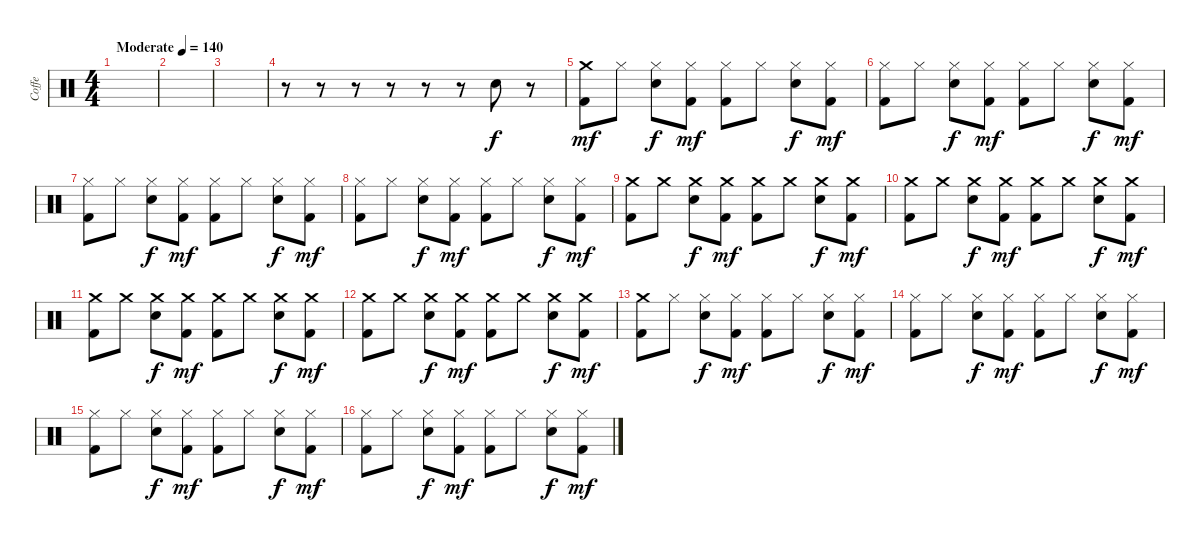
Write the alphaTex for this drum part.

\track ("Coffe" "Coffe") {instrument percussion}
\staff {score}
\articulation defaults
\ts (4 4)
\tempo (140 "Moderate")
\clef neutral
\ks c
|
|
|
r.8 r.8 r.8 r.8 r.8 r.8 "Snare (hit) 2".8 r.8 |
("Crash medium (hit)" "Kick (hit) 2").8{dy mf} "Hi-Hat (closed)".8 ("Hi-Hat (closed)" "Snare (hit) 2").8{dy f} ("Hi-Hat (closed)" "Kick (hit) 2").8{dy mf} ("Hi-Hat (closed)" "Kick (hit) 2").8 "Hi-Hat (closed)".8 ("Hi-Hat (closed)" "Snare (hit) 2").8{dy f} ("Hi-Hat (closed)" "Kick (hit) 2").8{dy mf} |
("Hi-Hat (closed)" "Kick (hit) 2").8 "Hi-Hat (closed)".8 ("Hi-Hat (closed)" "Snare (hit) 2").8{dy f} ("Hi-Hat (closed)" "Kick (hit) 2").8{dy mf} ("Hi-Hat (closed)" "Kick (hit) 2").8 "Hi-Hat (closed)".8 ("Hi-Hat (closed)" "Snare (hit) 2").8{dy f} ("Hi-Hat (closed)" "Kick (hit) 2").8{dy mf} |
("Hi-Hat (closed)" "Kick (hit) 2").8 "Hi-Hat (closed)".8 ("Hi-Hat (closed)" "Snare (hit) 2").8{dy f} ("Hi-Hat (closed)" "Kick (hit) 2").8{dy mf} ("Hi-Hat (closed)" "Kick (hit) 2").8 "Hi-Hat (closed)".8 ("Hi-Hat (closed)" "Snare (hit) 2").8{dy f} ("Hi-Hat (closed)" "Kick (hit) 2").8{dy mf} |
("Hi-Hat (closed)" "Kick (hit) 2").8 "Hi-Hat (closed)".8 ("Hi-Hat (closed)" "Snare (hit) 2").8{dy f} ("Hi-Hat (closed)" "Kick (hit) 2").8{dy mf} ("Hi-Hat (closed)" "Kick (hit) 2").8 "Hi-Hat (closed)".8 ("Hi-Hat (closed)" "Snare (hit) 2").8{dy f} ("Hi-Hat (closed)" "Kick (hit) 2").8{dy mf} |
("Crash medium (hit)" "Kick (hit) 2").8 "Crash medium (hit)".8 ("Crash medium (hit)" "Snare (hit) 2").8{dy f} ("Crash medium (hit)" "Kick (hit) 2").8{dy mf} ("Crash medium (hit)" "Kick (hit) 2").8 "Crash medium (hit)".8 ("Crash medium (hit)" "Snare (hit) 2").8{dy f} ("Crash medium (hit)" "Kick (hit) 2").8{dy mf} |
("Crash medium (hit)" "Kick (hit) 2").8 "Crash medium (hit)".8 ("Crash medium (hit)" "Snare (hit) 2").8{dy f} ("Crash medium (hit)" "Kick (hit) 2").8{dy mf} ("Crash medium (hit)" "Kick (hit) 2").8 "Crash medium (hit)".8 ("Crash medium (hit)" "Snare (hit) 2").8{dy f} ("Crash medium (hit)" "Kick (hit) 2").8{dy mf} |
("Crash medium (hit)" "Kick (hit) 2").8 "Crash medium (hit)".8 ("Crash medium (hit)" "Snare (hit) 2").8{dy f} ("Crash medium (hit)" "Kick (hit) 2").8{dy mf} ("Crash medium (hit)" "Kick (hit) 2").8 "Crash medium (hit)".8 ("Crash medium (hit)" "Snare (hit) 2").8{dy f} ("Crash medium (hit)" "Kick (hit) 2").8{dy mf} |
("Crash medium (hit)" "Kick (hit) 2").8 "Crash medium (hit)".8 ("Crash medium (hit)" "Snare (hit) 2").8{dy f} ("Crash medium (hit)" "Kick (hit) 2").8{dy mf} ("Crash medium (hit)" "Kick (hit) 2").8 "Crash medium (hit)".8 ("Crash medium (hit)" "Snare (hit) 2").8{dy f} ("Crash medium (hit)" "Kick (hit) 2").8{dy mf} |
("Crash medium (hit)" "Kick (hit) 2").8 "Hi-Hat (closed)".8 ("Hi-Hat (closed)" "Snare (hit) 2").8{dy f} ("Hi-Hat (closed)" "Kick (hit) 2").8{dy mf} ("Hi-Hat (closed)" "Kick (hit) 2").8 "Hi-Hat (closed)".8 ("Hi-Hat (closed)" "Snare (hit) 2").8{dy f} ("Hi-Hat (closed)" "Kick (hit) 2").8{dy mf} |
("Hi-Hat (closed)" "Kick (hit) 2").8 "Hi-Hat (closed)".8 ("Hi-Hat (closed)" "Snare (hit) 2").8{dy f} ("Hi-Hat (closed)" "Kick (hit) 2").8{dy mf} ("Hi-Hat (closed)" "Kick (hit) 2").8 "Hi-Hat (closed)".8 ("Hi-Hat (closed)" "Snare (hit) 2").8{dy f} ("Hi-Hat (closed)" "Kick (hit) 2").8{dy mf} |
("Hi-Hat (closed)" "Kick (hit) 2").8 "Hi-Hat (closed)".8 ("Hi-Hat (closed)" "Snare (hit) 2").8{dy f} ("Hi-Hat (closed)" "Kick (hit) 2").8{dy mf} ("Hi-Hat (closed)" "Kick (hit) 2").8 "Hi-Hat (closed)".8 ("Hi-Hat (closed)" "Snare (hit) 2").8{dy f} ("Hi-Hat (closed)" "Kick (hit) 2").8{dy mf} |
("Hi-Hat (closed)" "Kick (hit) 2").8 "Hi-Hat (closed)".8 ("Hi-Hat (closed)" "Snare (hit) 2").8{dy f} ("Hi-Hat (closed)" "Kick (hit) 2").8{dy mf} ("Hi-Hat (closed)" "Kick (hit) 2").8 "Hi-Hat (closed)".8 ("Hi-Hat (closed)" "Snare (hit) 2").8{dy f} ("Hi-Hat (closed)" "Kick (hit) 2").8{dy mf}
